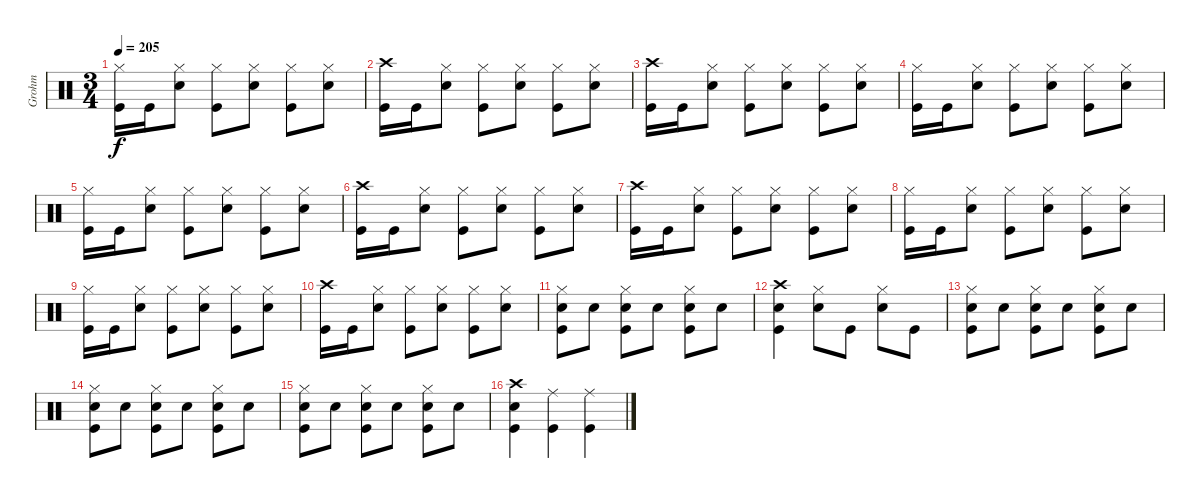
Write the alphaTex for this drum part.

\track ("Grohm" "Grohm") {instrument percussion}
\staff {score}
\articulation defaults
\ts (3 4)
\tempo 205
\clef neutral
\ks c
("Hi-Hat (closed)" "Kick (hit)").16{dy f} "Kick (hit)".16 ("Hi-Hat (closed)" "Snare (hit) 2").8 ("Hi-Hat (closed)" "Kick (hit)").8 ("Hi-Hat (closed)" "Snare (hit) 2").8 ("Hi-Hat (closed)" "Kick (hit)").8 ("Hi-Hat (closed)" "Snare (hit) 2").8 |
("Crash high (hit)" "Kick (hit)").16 "Kick (hit)".16 ("Hi-Hat (closed)" "Snare (hit) 2").8 ("Hi-Hat (closed)" "Kick (hit)").8 ("Hi-Hat (closed)" "Snare (hit) 2").8 ("Hi-Hat (closed)" "Kick (hit)").8 ("Hi-Hat (closed)" "Snare (hit) 2").8 |
("Crash high (hit)" "Kick (hit)").16 "Kick (hit)".16 ("Hi-Hat (closed)" "Snare (hit) 2").8 ("Hi-Hat (closed)" "Kick (hit)").8 ("Hi-Hat (closed)" "Snare (hit) 2").8 ("Hi-Hat (closed)" "Kick (hit)").8 ("Hi-Hat (closed)" "Snare (hit) 2").8 |
("Hi-Hat (closed)" "Kick (hit)").16 "Kick (hit)".16 ("Hi-Hat (closed)" "Snare (hit) 2").8 ("Hi-Hat (closed)" "Kick (hit)").8 ("Hi-Hat (closed)" "Snare (hit) 2").8 ("Hi-Hat (closed)" "Kick (hit)").8 ("Hi-Hat (closed)" "Snare (hit) 2").8 |
("Hi-Hat (closed)" "Kick (hit)").16 "Kick (hit)".16 ("Hi-Hat (closed)" "Snare (hit) 2").8 ("Hi-Hat (closed)" "Kick (hit)").8 ("Hi-Hat (closed)" "Snare (hit) 2").8 ("Hi-Hat (closed)" "Kick (hit)").8 ("Hi-Hat (closed)" "Snare (hit) 2").8 |
("Crash high (hit)" "Kick (hit)").16 "Kick (hit)".16 ("Hi-Hat (closed)" "Snare (hit) 2").8 ("Hi-Hat (closed)" "Kick (hit)").8 ("Hi-Hat (closed)" "Snare (hit) 2").8 ("Hi-Hat (closed)" "Kick (hit)").8 ("Hi-Hat (closed)" "Snare (hit) 2").8 |
("Crash high (hit)" "Kick (hit)").16 "Kick (hit)".16 ("Hi-Hat (closed)" "Snare (hit) 2").8 ("Hi-Hat (closed)" "Kick (hit)").8 ("Hi-Hat (closed)" "Snare (hit) 2").8 ("Hi-Hat (closed)" "Kick (hit)").8 ("Hi-Hat (closed)" "Snare (hit) 2").8 |
("Hi-Hat (closed)" "Kick (hit)").16 "Kick (hit)".16 ("Hi-Hat (closed)" "Snare (hit) 2").8 ("Hi-Hat (closed)" "Kick (hit)").8 ("Hi-Hat (closed)" "Snare (hit) 2").8 ("Hi-Hat (closed)" "Kick (hit)").8 ("Hi-Hat (closed)" "Snare (hit) 2").8 |
("Hi-Hat (closed)" "Kick (hit)").16 "Kick (hit)".16 ("Hi-Hat (closed)" "Snare (hit) 2").8 ("Hi-Hat (closed)" "Kick (hit)").8 ("Hi-Hat (closed)" "Snare (hit) 2").8 ("Hi-Hat (closed)" "Kick (hit)").8 ("Hi-Hat (closed)" "Snare (hit) 2").8 |
("Crash high (hit)" "Kick (hit)").16 "Kick (hit)".16 ("Hi-Hat (closed)" "Snare (hit) 2").8 ("Hi-Hat (closed)" "Kick (hit)").8 ("Hi-Hat (closed)" "Snare (hit) 2").8 ("Hi-Hat (closed)" "Kick (hit)").8 ("Hi-Hat (closed)" "Snare (hit) 2").8 |
("Hi-Hat (closed)" "Snare (hit) 2" "Kick (hit)").8 "Snare (hit) 2".8 ("Hi-Hat (closed)" "Snare (hit) 2" "Kick (hit)").8 "Snare (hit) 2".8 ("Hi-Hat (closed)" "Snare (hit) 2" "Kick (hit)").8 "Snare (hit) 2".8 |
("Crash high (hit)" "Snare (hit) 2" "Kick (hit)").4 ("Hi-Hat (closed)" "Snare (hit) 2").8 "Kick (hit)".8 ("Hi-Hat (closed)" "Snare (hit) 2").8 "Kick (hit)".8 |
("Hi-Hat (closed)" "Snare (hit) 2" "Kick (hit)").8 "Snare (hit) 2".8 ("Hi-Hat (closed)" "Snare (hit) 2" "Kick (hit)").8 "Snare (hit) 2".8 ("Hi-Hat (closed)" "Snare (hit) 2" "Kick (hit)").8 "Snare (hit) 2".8 |
("Hi-Hat (closed)" "Snare (hit) 2" "Kick (hit)").8 "Snare (hit) 2".8 ("Hi-Hat (closed)" "Snare (hit) 2" "Kick (hit)").8 "Snare (hit) 2".8 ("Hi-Hat (closed)" "Snare (hit) 2" "Kick (hit)").8 "Snare (hit) 2".8 |
("Hi-Hat (closed)" "Snare (hit) 2" "Kick (hit)").8 "Snare (hit) 2".8 ("Hi-Hat (closed)" "Snare (hit) 2" "Kick (hit)").8 "Snare (hit) 2".8 ("Hi-Hat (closed)" "Snare (hit) 2" "Kick (hit)").8 "Snare (hit) 2".8 |
("Crash high (hit)" "Snare (hit) 2" "Kick (hit)").4 ("Ride (middle)" "Kick (hit)").4 ("Ride (middle)" "Kick (hit)").4
